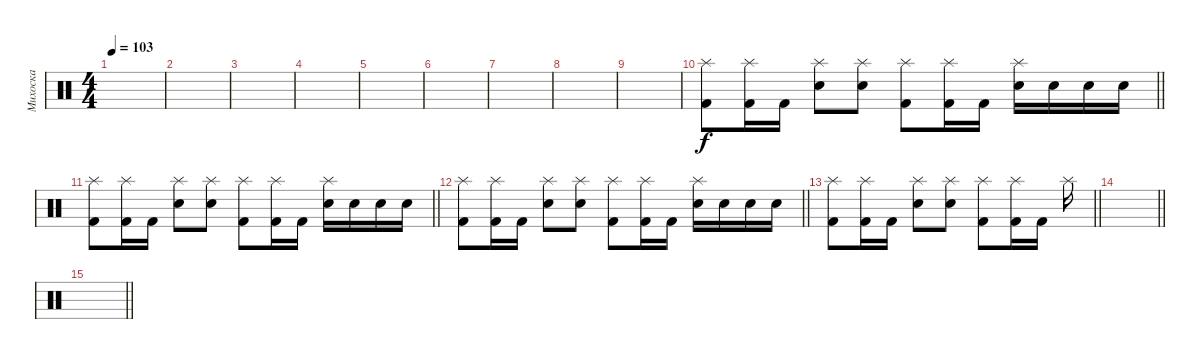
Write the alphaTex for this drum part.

\track ("Михоска" "Михоска") {instrument percussion}
\staff {score}
\articulation defaults
\ts (4 4)
\tempo 103
\clef neutral
\ks c
|
|
|
|
|
|
|
|
|
\barLineRight lightlight
("Splash (hit)" "Kick (hit) 2").8 ("Splash (hit)" "Kick (hit) 2").16 "Kick (hit) 2".16 ("Splash (hit)" "Snare (hit) 2").8 ("Splash (hit)" "Snare (hit) 2").8 ("Splash (hit)" "Kick (hit) 2").8 ("Splash (hit)" "Kick (hit) 2").16 "Kick (hit) 2".16 ("Splash (hit)" "Snare (hit) 2").16 "Snare (hit) 2".16 "Snare (hit) 2".16 "Snare (hit) 2".16 |
\barLineRight lightlight
("Splash (hit)" "Kick (hit) 2").8 ("Splash (hit)" "Kick (hit) 2").16 "Kick (hit) 2".16 ("Splash (hit)" "Snare (hit) 2").8 ("Splash (hit)" "Snare (hit) 2").8 ("Splash (hit)" "Kick (hit) 2").8 ("Splash (hit)" "Kick (hit) 2").16 "Kick (hit) 2".16 ("Splash (hit)" "Snare (hit) 2").16 "Snare (hit) 2".16 "Snare (hit) 2".16 "Snare (hit) 2".16 |
\barLineRight lightlight
("Splash (hit)" "Kick (hit) 2").8 ("Splash (hit)" "Kick (hit) 2").16 "Kick (hit) 2".16 ("Splash (hit)" "Snare (hit) 2").8 ("Splash (hit)" "Snare (hit) 2").8 ("Splash (hit)" "Kick (hit) 2").8 ("Splash (hit)" "Kick (hit) 2").16 "Kick (hit) 2".16 ("Splash (hit)" "Snare (hit) 2").16 "Snare (hit) 2".16 "Snare (hit) 2".16 "Snare (hit) 2".16 |
\barLineRight lightlight
("Splash (hit)" "Kick (hit) 2").8 ("Splash (hit)" "Kick (hit) 2").16 "Kick (hit) 2".16 ("Splash (hit)" "Snare (hit) 2").8 ("Splash (hit)" "Snare (hit) 2").8 ("Splash (hit)" "Kick (hit) 2").8 ("Splash (hit)" "Kick (hit) 2").16 "Kick (hit) 2".16 "Splash (hit)".16 |
\barLineRight lightlight
|
\barLineRight lightlight
